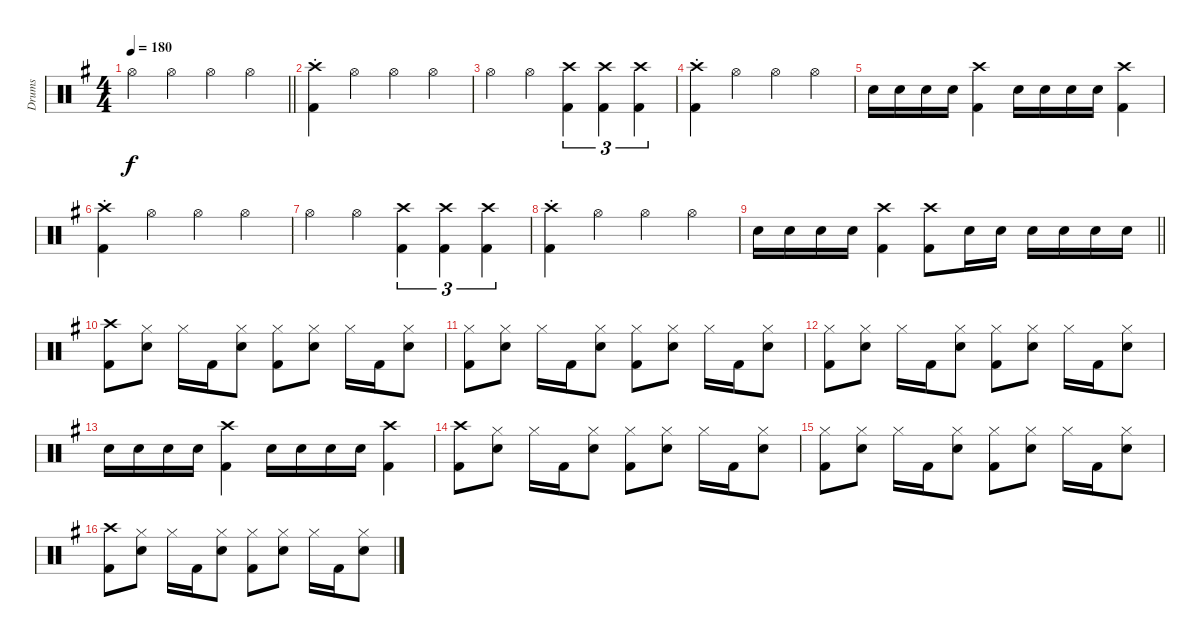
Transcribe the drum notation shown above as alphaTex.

\track ("Drums" "Drums") {instrument percussion}
\staff {score}
\articulation defaults
\ts (4 4)
\tempo 180
\clef neutral
\barLineRight lightlight
\ks g "Hi-Hat (open)".4{dy f} "Hi-Hat (open)".4 "Hi-Hat (open)".4 "Hi-Hat (open)".4
|
("Crash high (hit)"{st} "Kick (hit) 2"{st}).4 "Hi-Hat (open)".4 "Hi-Hat (open)".4 "Hi-Hat (open)".4 |
"Hi-Hat (open)".4 "Hi-Hat (open)".4 ("Crash high (hit)" "Kick (hit) 2").4{tu (3 2)} ("Crash high (hit)" "Kick (hit) 2").4{tu (3 2)} ("Crash high (hit)" "Kick (hit) 2").4{tu (3 2)} |
("Crash high (hit)"{st} "Kick (hit) 2"{st}).4 "Hi-Hat (open)".4 "Hi-Hat (open)".4 "Hi-Hat (open)".4 |
"Snare (hit) 2".16 "Snare (hit) 2".16 "Snare (hit) 2".16 "Snare (hit) 2".16 ("Crash high (hit)" "Kick (hit) 2").4 "Snare (hit) 2".16 "Snare (hit) 2".16 "Snare (hit) 2".16 "Snare (hit) 2".16 ("Crash high (hit)" "Kick (hit) 2").4 |
("Crash high (hit)"{st} "Kick (hit) 2"{st}).4 "Hi-Hat (open)".4 "Hi-Hat (open)".4 "Hi-Hat (open)".4 |
"Hi-Hat (open)".4 "Hi-Hat (open)".4 ("Crash high (hit)" "Kick (hit) 2").4{tu (3 2)} ("Crash high (hit)" "Kick (hit) 2").4{tu (3 2)} ("Crash high (hit)" "Kick (hit) 2").4{tu (3 2)} |
("Crash high (hit)"{st} "Kick (hit) 2"{st}).4 "Hi-Hat (open)".4 "Hi-Hat (open)".4 "Hi-Hat (open)".4 |
\barLineRight lightlight "Snare (hit) 2".16 "Snare (hit) 2".16 "Snare (hit) 2".16 "Snare (hit) 2".16
("Crash high (hit)" "Kick (hit) 2").4 ("Crash high (hit)" "Kick (hit) 2").8 "Snare (hit) 2".16 "Snare (hit) 2".16 "Snare (hit) 2".16 "Snare (hit) 2".16 "Snare (hit) 2".16 "Snare (hit) 2".16 |
("Crash high (hit)" "Kick (hit) 2").8 ("Hi-Hat (closed)" "Snare (hit) 2").8 "Hi-Hat (closed)".16 "Kick (hit) 2".16 ("Hi-Hat (closed)" "Snare (hit) 2").8 ("Hi-Hat (closed)" "Kick (hit) 2").8 ("Hi-Hat (closed)" "Snare (hit) 2").8 "Hi-Hat (closed)".16 "Kick (hit) 2".16 ("Hi-Hat (closed)" "Snare (hit) 2").8 |
("Hi-Hat (closed)" "Kick (hit) 2").8 ("Hi-Hat (closed)" "Snare (hit) 2").8 "Hi-Hat (closed)".16 "Kick (hit) 2".16 ("Hi-Hat (closed)" "Snare (hit) 2").8 ("Hi-Hat (closed)" "Kick (hit) 2").8 ("Hi-Hat (closed)" "Snare (hit) 2").8 "Hi-Hat (closed)".16 "Kick (hit) 2".16 ("Hi-Hat (closed)" "Snare (hit) 2").8 |
("Hi-Hat (closed)" "Kick (hit) 2").8 ("Hi-Hat (closed)" "Snare (hit) 2").8 "Hi-Hat (closed)".16 "Kick (hit) 2".16 ("Hi-Hat (closed)" "Snare (hit) 2").8 ("Hi-Hat (closed)" "Kick (hit) 2").8 ("Hi-Hat (closed)" "Snare (hit) 2").8 "Hi-Hat (closed)".16 "Kick (hit) 2".16 ("Hi-Hat (closed)" "Snare (hit) 2").8 |
"Snare (hit) 2".16 "Snare (hit) 2".16 "Snare (hit) 2".16 "Snare (hit) 2".16 ("Crash high (hit)" "Kick (hit) 2").4 "Snare (hit) 2".16 "Snare (hit) 2".16 "Snare (hit) 2".16 "Snare (hit) 2".16 ("Crash high (hit)" "Kick (hit) 2").4 |
("Crash high (hit)" "Kick (hit) 2").8 ("Hi-Hat (closed)" "Snare (hit) 2").8 "Hi-Hat (closed)".16 "Kick (hit) 2".16 ("Hi-Hat (closed)" "Snare (hit) 2").8 ("Hi-Hat (closed)" "Kick (hit) 2").8 ("Hi-Hat (closed)" "Snare (hit) 2").8 "Hi-Hat (closed)".16 "Kick (hit) 2".16 ("Hi-Hat (closed)" "Snare (hit) 2").8 |
("Hi-Hat (closed)" "Kick (hit) 2").8 ("Hi-Hat (closed)" "Snare (hit) 2").8 "Hi-Hat (closed)".16 "Kick (hit) 2".16 ("Hi-Hat (closed)" "Snare (hit) 2").8 ("Hi-Hat (closed)" "Kick (hit) 2").8 ("Hi-Hat (closed)" "Snare (hit) 2").8 "Hi-Hat (closed)".16 "Kick (hit) 2".16 ("Hi-Hat (closed)" "Snare (hit) 2").8 |
("Crash high (hit)" "Kick (hit) 2").8 ("Hi-Hat (closed)" "Snare (hit) 2").8 "Hi-Hat (closed)".16 "Kick (hit) 2".16 ("Hi-Hat (closed)" "Snare (hit) 2").8 ("Hi-Hat (closed)" "Kick (hit) 2").8 ("Hi-Hat (closed)" "Snare (hit) 2").8 "Hi-Hat (closed)".16 "Kick (hit) 2".16 ("Hi-Hat (closed)" "Snare (hit) 2").8
